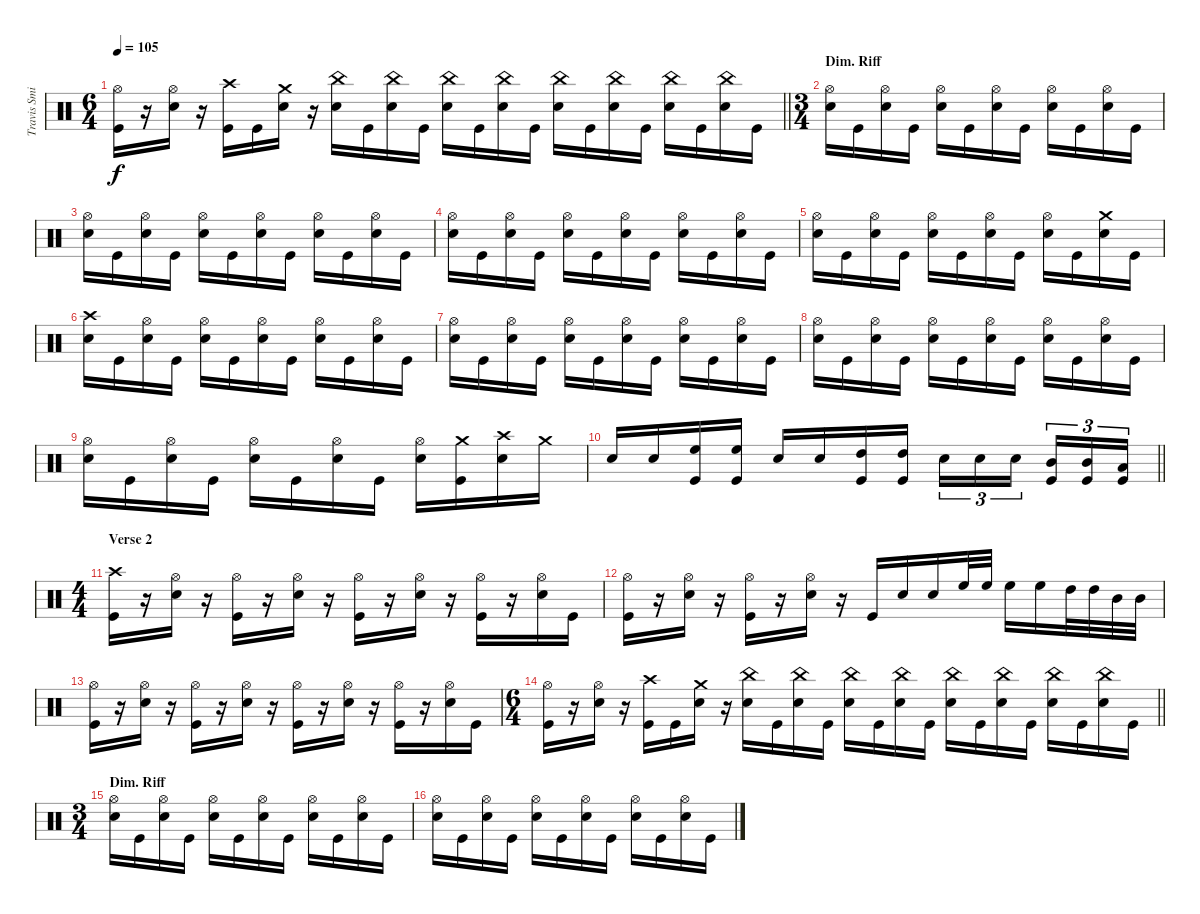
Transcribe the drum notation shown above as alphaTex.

\track ("Travis Smith" "Travis Smi") {instrument percussion}
\staff {score}
\articulation defaults
\ts (6 4)
\tempo 105
\clef neutral
\barLineRight lightlight
\ks c
("Hi-Hat (open)" "Kick (hit)").16{dy f} r.16 ("Hi-Hat (open)" "Electric Snare (hit)").16 r.16 ("Crash high (hit)" "Kick (hit)").16 "Kick (hit)".16 ("Crash medium (hit)" "Electric Snare (hit)").16 r.16 ("China (hit)" "Electric Snare (hit)").16 "Kick (hit)".16 ("China (hit)" "Electric Snare (hit)").16 "Kick (hit)".16 ("China (hit)" "Electric Snare (hit)").16 "Kick (hit)".16 ("China (hit)" "Electric Snare (hit)").16 "Kick (hit)".16 ("China (hit)" "Electric Snare (hit)").16 "Kick (hit)".16 ("China (hit)" "Electric Snare (hit)").16 "Kick (hit)".16 ("China (hit)" "Electric Snare (hit)").16 "Kick (hit)".16 ("China (hit)" "Electric Snare (hit)").16 "Kick (hit)".16 |
\ts (3 4)
\section ("" "Dim. Riff")
("Hi-Hat (open)" "Electric Snare (hit)").16 "Kick (hit)".16 ("Hi-Hat (open)" "Electric Snare (hit)").16 "Kick (hit)".16 ("Hi-Hat (open)" "Electric Snare (hit)").16 "Kick (hit)".16 ("Hi-Hat (open)" "Electric Snare (hit)").16 "Kick (hit)".16 ("Hi-Hat (open)" "Electric Snare (hit)").16 "Kick (hit)".16 ("Hi-Hat (open)" "Electric Snare (hit)").16 "Kick (hit)".16 |
("Hi-Hat (open)" "Electric Snare (hit)").16 "Kick (hit)".16 ("Hi-Hat (open)" "Electric Snare (hit)").16 "Kick (hit)".16 ("Hi-Hat (open)" "Electric Snare (hit)").16 "Kick (hit)".16 ("Hi-Hat (open)" "Electric Snare (hit)").16 "Kick (hit)".16 ("Hi-Hat (open)" "Electric Snare (hit)").16 "Kick (hit)".16 ("Hi-Hat (open)" "Electric Snare (hit)").16 "Kick (hit)".16 |
("Hi-Hat (open)" "Electric Snare (hit)").16 "Kick (hit)".16 ("Hi-Hat (open)" "Electric Snare (hit)").16 "Kick (hit)".16 ("Hi-Hat (open)" "Electric Snare (hit)").16 "Kick (hit)".16 ("Hi-Hat (open)" "Electric Snare (hit)").16 "Kick (hit)".16 ("Hi-Hat (open)" "Electric Snare (hit)").16 "Kick (hit)".16 ("Hi-Hat (open)" "Electric Snare (hit)").16 "Kick (hit)".16 |
("Hi-Hat (open)" "Electric Snare (hit)").16 "Kick (hit)".16 ("Hi-Hat (open)" "Electric Snare (hit)").16 "Kick (hit)".16 ("Hi-Hat (open)" "Electric Snare (hit)").16 "Kick (hit)".16 ("Hi-Hat (open)" "Electric Snare (hit)").16 "Kick (hit)".16 ("Hi-Hat (open)" "Electric Snare (hit)").16 "Kick (hit)".16 ("Crash medium (hit)" "Electric Snare (hit)").16 "Kick (hit)".16 |
("Crash high (hit)" "Electric Snare (hit)").16 "Kick (hit)".16 ("Hi-Hat (open)" "Electric Snare (hit)").16 "Kick (hit)".16 ("Hi-Hat (open)" "Electric Snare (hit)").16 "Kick (hit)".16 ("Hi-Hat (open)" "Electric Snare (hit)").16 "Kick (hit)".16 ("Hi-Hat (open)" "Electric Snare (hit)").16 "Kick (hit)".16 ("Hi-Hat (open)" "Electric Snare (hit)").16 "Kick (hit)".16 |
("Hi-Hat (open)" "Electric Snare (hit)").16 "Kick (hit)".16 ("Hi-Hat (open)" "Electric Snare (hit)").16 "Kick (hit)".16 ("Hi-Hat (open)" "Electric Snare (hit)").16 "Kick (hit)".16 ("Hi-Hat (open)" "Electric Snare (hit)").16 "Kick (hit)".16 ("Hi-Hat (open)" "Electric Snare (hit)").16 "Kick (hit)".16 ("Hi-Hat (open)" "Electric Snare (hit)").16 "Kick (hit)".16 |
("Hi-Hat (open)" "Electric Snare (hit)").16 "Kick (hit)".16 ("Hi-Hat (open)" "Electric Snare (hit)").16 "Kick (hit)".16 ("Hi-Hat (open)" "Electric Snare (hit)").16 "Kick (hit)".16 ("Hi-Hat (open)" "Electric Snare (hit)").16 "Kick (hit)".16 ("Hi-Hat (open)" "Electric Snare (hit)").16 "Kick (hit)".16 ("Hi-Hat (open)" "Electric Snare (hit)").16 "Kick (hit)".16 |
("Hi-Hat (open)" "Electric Snare (hit)").16 "Kick (hit)".16 ("Hi-Hat (open)" "Electric Snare (hit)").16 "Kick (hit)".16 ("Hi-Hat (open)" "Electric Snare (hit)").16 "Kick (hit)".16 ("Hi-Hat (open)" "Electric Snare (hit)").16 "Kick (hit)".16 ("Hi-Hat (open)" "Electric Snare (hit)").16 ("Crash medium (hit)" "Kick (hit)").16 ("Crash high (hit)" "Electric Snare (hit)").16 "Crash medium (hit)".16 |
\barLineRight lightlight "Electric Snare (hit)".16 "Electric Snare (hit)".16
("High Floor Tom (hit)" "Kick (hit)").16 ("High Floor Tom (hit)" "Kick (hit)").16 "Electric Snare (hit)".16 "Electric Snare (hit)".16 ("High Tom (hit)" "Kick (hit)").16 ("High Tom (hit)" "Kick (hit)").16 "Electric Snare (hit)".16{tu (3 2)} "Electric Snare (hit)".16{tu (3 2)} "Electric Snare (hit)".16{tu (3 2) beam splitsecondary} ("Mid Tom (hit)" "Kick (hit)").16{tu (3 2)} ("Mid Tom (hit)" "Kick (hit)").16{tu (3 2)} ("Low Tom (hit)" "Kick (hit)").16{tu (3 2)} |
\ts (4 4)
\section ("" "Verse 2")
("Crash high (hit)" "Kick (hit)").16 r.16 ("Hi-Hat (open)" "Electric Snare (hit)").16 r.16 ("Hi-Hat (open)" "Kick (hit)").16 r.16 ("Hi-Hat (open)" "Electric Snare (hit)").16 r.16 ("Hi-Hat (open)" "Kick (hit)").16 r.16 ("Hi-Hat (open)" "Electric Snare (hit)").16 r.16 ("Hi-Hat (open)" "Kick (hit)").16 r.16 ("Hi-Hat (open)" "Electric Snare (hit)").16 "Kick (hit)".16 |
("Hi-Hat (open)" "Kick (hit)").16 r.16 ("Hi-Hat (open)" "Electric Snare (hit)").16 r.16 ("Hi-Hat (open)" "Kick (hit)").16 r.16 ("Hi-Hat (open)" "Electric Snare (hit)").16 r.16 "Kick (hit)".16 "Electric Snare (hit)".16 "Electric Snare (hit)".16 "High Floor Tom (hit)".32 "High Floor Tom (hit)".32 "High Floor Tom (hit)".16 "High Floor Tom (hit)".16 "High Tom (hit)".32 "High Tom (hit)".32 "Mid Tom (hit)".32 "Mid Tom (hit)".32 |
("Hi-Hat (open)" "Kick (hit)").16 r.16 ("Hi-Hat (open)" "Electric Snare (hit)").16 r.16 ("Hi-Hat (open)" "Kick (hit)").16 r.16 ("Hi-Hat (open)" "Electric Snare (hit)").16 r.16 ("Hi-Hat (open)" "Kick (hit)").16 r.16 ("Hi-Hat (open)" "Electric Snare (hit)").16 r.16 ("Hi-Hat (open)" "Kick (hit)").16 r.16 ("Hi-Hat (open)" "Electric Snare (hit)").16 "Kick (hit)".16 |
\ts (6 4)
\barLineRight lightlight
("Hi-Hat (open)" "Kick (hit)").16 r.16 ("Hi-Hat (open)" "Electric Snare (hit)").16 r.16 ("Crash high (hit)" "Kick (hit)").16 "Kick (hit)".16 ("Crash medium (hit)" "Electric Snare (hit)").16 r.16 ("China (hit)" "Electric Snare (hit)").16 "Kick (hit)".16 ("China (hit)" "Electric Snare (hit)").16 "Kick (hit)".16 ("China (hit)" "Electric Snare (hit)").16 "Kick (hit)".16 ("China (hit)" "Electric Snare (hit)").16 "Kick (hit)".16 ("China (hit)" "Electric Snare (hit)").16 "Kick (hit)".16 ("China (hit)" "Electric Snare (hit)").16 "Kick (hit)".16 ("China (hit)" "Electric Snare (hit)").16 "Kick (hit)".16 ("China (hit)" "Electric Snare (hit)").16 "Kick (hit)".16 |
\ts (3 4)
\section ("" "Dim. Riff")
("Hi-Hat (open)" "Electric Snare (hit)").16 "Kick (hit)".16 ("Hi-Hat (open)" "Electric Snare (hit)").16 "Kick (hit)".16 ("Hi-Hat (open)" "Electric Snare (hit)").16 "Kick (hit)".16 ("Hi-Hat (open)" "Electric Snare (hit)").16 "Kick (hit)".16 ("Hi-Hat (open)" "Electric Snare (hit)").16 "Kick (hit)".16 ("Hi-Hat (open)" "Electric Snare (hit)").16 "Kick (hit)".16 |
("Hi-Hat (open)" "Electric Snare (hit)").16 "Kick (hit)".16 ("Hi-Hat (open)" "Electric Snare (hit)").16 "Kick (hit)".16 ("Hi-Hat (open)" "Electric Snare (hit)").16 "Kick (hit)".16 ("Hi-Hat (open)" "Electric Snare (hit)").16 "Kick (hit)".16 ("Hi-Hat (open)" "Electric Snare (hit)").16 "Kick (hit)".16 ("Hi-Hat (open)" "Electric Snare (hit)").16 "Kick (hit)".16
